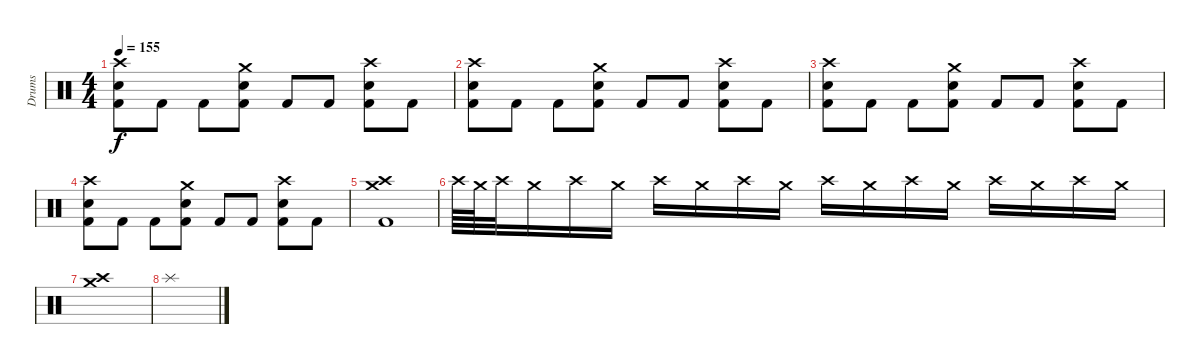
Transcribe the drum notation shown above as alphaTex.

\track ("Drums" "Drums") {instrument percussion}
\staff {score}
\articulation defaults
\ts (4 4)
\tempo 155
\clef neutral
\ks c
("Crash high (hit)" "Kick (hit) 2" "Snare (hit) 2").8{dy f} "Kick (hit) 2".8 "Kick (hit) 2".8 ("Crash medium (hit)" "Kick (hit) 2" "Snare (hit) 2").8 "Kick (hit) 2".8 "Kick (hit) 2".8 ("Crash high (hit)" "Kick (hit) 2" "Snare (hit) 2").8 "Kick (hit) 2".8 |
("Crash high (hit)" "Kick (hit) 2" "Snare (hit) 2").8 "Kick (hit) 2".8 "Kick (hit) 2".8 ("Crash medium (hit)" "Kick (hit) 2" "Snare (hit) 2").8 "Kick (hit) 2".8 "Kick (hit) 2".8 ("Crash high (hit)" "Kick (hit) 2" "Snare (hit) 2").8 "Kick (hit) 2".8 |
("Crash high (hit)" "Kick (hit) 2" "Snare (hit) 2").8 "Kick (hit) 2".8 "Kick (hit) 2".8 ("Crash medium (hit)" "Kick (hit) 2" "Snare (hit) 2").8 "Kick (hit) 2".8 "Kick (hit) 2".8 ("Crash high (hit)" "Kick (hit) 2" "Snare (hit) 2").8 "Kick (hit) 2".8 |
("Crash high (hit)" "Kick (hit) 2" "Snare (hit) 2").8 "Kick (hit) 2".8 "Kick (hit) 2".8 ("Crash medium (hit)" "Kick (hit) 2" "Snare (hit) 2").8 "Kick (hit) 2".8 "Kick (hit) 2".8 ("Crash high (hit)" "Kick (hit) 2" "Snare (hit) 2").8 "Kick (hit) 2".8 |
("Crash high (hit)" "Kick (hit) 2" "Crash medium (hit)").1{volume 5} |
"Crash high (hit)".64{volume 0} "Crash medium (hit)".64{volume 16} "Crash high (hit)".32 "Crash medium (hit)".16 "Crash high (hit)".16 "Crash medium (hit)".16 "Crash high (hit)".16 "Crash medium (hit)".16 "Crash high (hit)".16 "Crash medium (hit)".16 "Crash high (hit)".16 "Crash medium (hit)".16 "Crash high (hit)".16 "Crash medium (hit)".16 "Crash high (hit)".16 "Crash medium (hit)".16 "Crash high (hit)".16 "Crash medium (hit)".16 |
("Crash high (hit)" "Crash medium (hit)").1 |
"Splash (hit)".1
